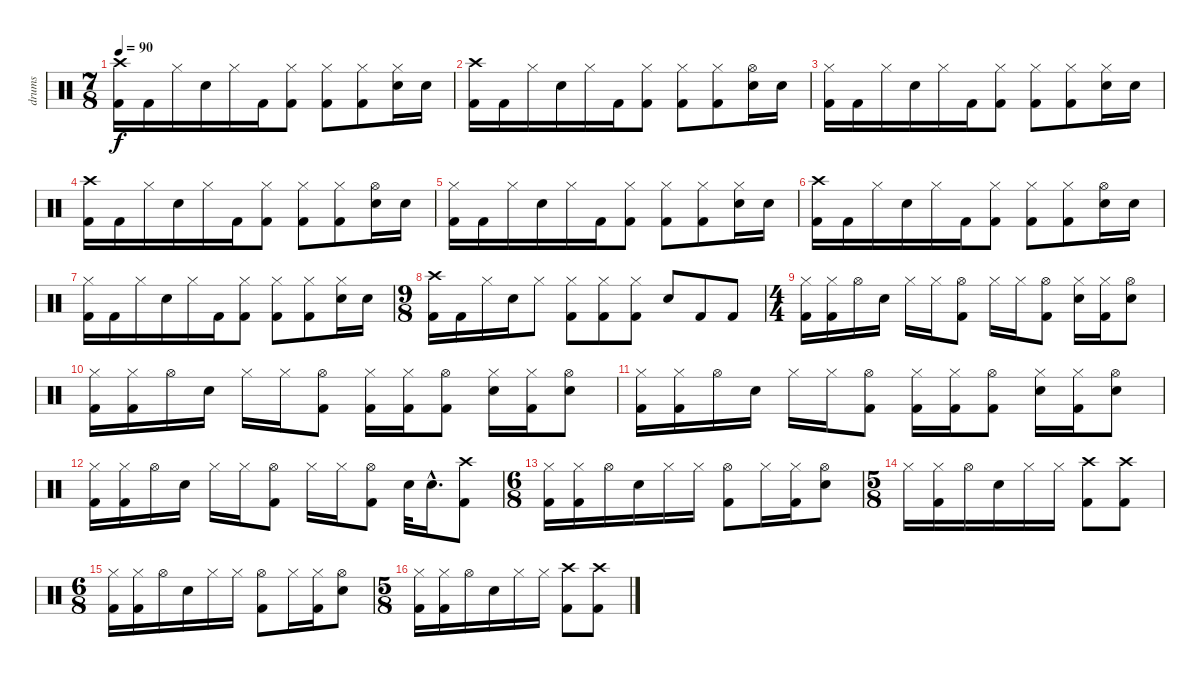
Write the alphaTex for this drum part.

\track ("drums" "drums") {instrument percussion}
\staff {score}
\articulation defaults
\ts (7 8)
\tempo 90
\clef neutral
\ks c
("Crash high (hit)" "Kick (hit) 2").16{dy f} "Kick (hit) 2".16 "Hi-Hat (closed)".16 "Electric Snare (hit)".16 "Hi-Hat (closed)".16 "Kick (hit) 2".16 ("Hi-Hat (closed)" "Kick (hit) 2").8 ("Hi-Hat (closed)" "Kick (hit) 2").8 ("Hi-Hat (closed)" "Kick (hit) 2").8 ("Hi-Hat (closed)" "Electric Snare (hit)").16 "Electric Snare (hit)".16 |
("Crash high (hit)" "Kick (hit) 2").16 "Kick (hit) 2".16 "Hi-Hat (closed)".16 "Electric Snare (hit)".16 "Hi-Hat (closed)".16 "Kick (hit) 2".16 ("Hi-Hat (closed)" "Kick (hit) 2").8 ("Hi-Hat (closed)" "Kick (hit) 2").8 ("Hi-Hat (closed)" "Kick (hit) 2").8 ("Hi-Hat (open)" "Electric Snare (hit)").16 "Electric Snare (hit)".16 |
("Hi-Hat (closed)" "Kick (hit) 2").16 "Kick (hit) 2".16 "Hi-Hat (closed)".16 "Electric Snare (hit)".16 "Hi-Hat (closed)".16 "Kick (hit) 2".16 ("Hi-Hat (closed)" "Kick (hit) 2").8 ("Hi-Hat (closed)" "Kick (hit) 2").8 ("Hi-Hat (closed)" "Kick (hit) 2").8 ("Hi-Hat (closed)" "Electric Snare (hit)").16 "Electric Snare (hit)".16 |
("Crash high (hit)" "Kick (hit) 2").16 "Kick (hit) 2".16 "Hi-Hat (closed)".16 "Electric Snare (hit)".16 "Hi-Hat (closed)".16 "Kick (hit) 2".16 ("Hi-Hat (closed)" "Kick (hit) 2").8 ("Hi-Hat (closed)" "Kick (hit) 2").8 ("Hi-Hat (closed)" "Kick (hit) 2").8 ("Hi-Hat (open)" "Electric Snare (hit)").16 "Electric Snare (hit)".16 |
("Hi-Hat (closed)" "Kick (hit) 2").16 "Kick (hit) 2".16 "Hi-Hat (closed)".16 "Electric Snare (hit)".16 "Hi-Hat (closed)".16 "Kick (hit) 2".16 ("Hi-Hat (closed)" "Kick (hit) 2").8 ("Hi-Hat (closed)" "Kick (hit) 2").8 ("Hi-Hat (closed)" "Kick (hit) 2").8 ("Hi-Hat (closed)" "Electric Snare (hit)").16 "Electric Snare (hit)".16 |
("Crash high (hit)" "Kick (hit) 2").16 "Kick (hit) 2".16 "Hi-Hat (closed)".16 "Electric Snare (hit)".16 "Hi-Hat (closed)".16 "Kick (hit) 2".16 ("Hi-Hat (closed)" "Kick (hit) 2").8 ("Hi-Hat (closed)" "Kick (hit) 2").8 ("Hi-Hat (closed)" "Kick (hit) 2").8 ("Hi-Hat (open)" "Electric Snare (hit)").16 "Electric Snare (hit)".16 |
("Hi-Hat (closed)" "Kick (hit) 2").16 "Kick (hit) 2".16 "Hi-Hat (closed)".16 "Electric Snare (hit)".16 "Hi-Hat (closed)".16 "Kick (hit) 2".16 ("Hi-Hat (closed)" "Kick (hit) 2").8 ("Hi-Hat (closed)" "Kick (hit) 2").8 ("Hi-Hat (closed)" "Kick (hit) 2").8 ("Hi-Hat (closed)" "Electric Snare (hit)").16 "Electric Snare (hit)".16 |
\ts (9 8)
("Crash high (hit)" "Kick (hit) 2").16 "Kick (hit) 2".16 "Hi-Hat (closed)".16 "Electric Snare (hit)".16 "Hi-Hat (closed)".8 ("Hi-Hat (closed)" "Kick (hit) 2").8 ("Hi-Hat (closed)" "Kick (hit) 2").8 ("Hi-Hat (closed)" "Kick (hit) 2").8 "Electric Snare (hit)".8 "Kick (hit) 2".8 "Kick (hit) 2".8 |
\ts (4 4)
("Hi-Hat (closed)" "Kick (hit) 2").16 ("Hi-Hat (closed)" "Kick (hit) 2").16 "Hi-Hat (open)".16 "Electric Snare (hit)".16 "Hi-Hat (closed)".16 "Hi-Hat (closed)".16 ("Hi-Hat (open)" "Kick (hit) 2").8 "Hi-Hat (closed)".16 "Hi-Hat (closed)".16 ("Hi-Hat (open)" "Kick (hit) 2").8 ("Hi-Hat (closed)" "Electric Snare (hit)").16 ("Hi-Hat (closed)" "Kick (hit) 2").16 ("Hi-Hat (open)" "Electric Snare (hit)").8 |
("Hi-Hat (closed)" "Kick (hit) 2").16 ("Hi-Hat (closed)" "Kick (hit) 2").16 "Hi-Hat (open)".16 "Electric Snare (hit)".16 "Hi-Hat (closed)".16 "Hi-Hat (closed)".16 ("Hi-Hat (open)" "Kick (hit) 2").8 ("Hi-Hat (closed)" "Kick (hit) 2").16 ("Hi-Hat (closed)" "Kick (hit) 2").16 ("Hi-Hat (open)" "Kick (hit) 2").8 ("Hi-Hat (closed)" "Electric Snare (hit)").16 ("Hi-Hat (closed)" "Kick (hit) 2").16 ("Hi-Hat (open)" "Electric Snare (hit)").8 |
("Hi-Hat (closed)" "Kick (hit) 2").16 ("Hi-Hat (closed)" "Kick (hit) 2").16 "Hi-Hat (open)".16 "Electric Snare (hit)".16 "Hi-Hat (closed)".16 "Hi-Hat (closed)".16 ("Hi-Hat (open)" "Kick (hit) 2").8 ("Hi-Hat (closed)" "Kick (hit) 2").16 ("Hi-Hat (closed)" "Kick (hit) 2").16 ("Hi-Hat (open)" "Kick (hit) 2").8 ("Hi-Hat (closed)" "Electric Snare (hit)").16 ("Hi-Hat (closed)" "Kick (hit) 2").16 ("Hi-Hat (open)" "Electric Snare (hit)").8 |
("Hi-Hat (closed)" "Kick (hit) 2").16 ("Hi-Hat (closed)" "Kick (hit) 2").16 "Hi-Hat (open)".16 "Electric Snare (hit)".16 "Hi-Hat (closed)".16 "Hi-Hat (closed)".16 ("Hi-Hat (open)" "Kick (hit) 2").8 "Hi-Hat (closed)".16 "Hi-Hat (closed)".16 ("Hi-Hat (open)" "Kick (hit) 2").8 "Electric Snare (hit)".32 "Electric Snare (hit)"{hac}.16{d} ("Crash high (hit)" "Kick (hit) 2").8 |
\ts (6 8)
("Hi-Hat (closed)" "Kick (hit) 2").16 ("Hi-Hat (closed)" "Kick (hit) 2").16 "Hi-Hat (open)".16 "Electric Snare (hit)".16 "Hi-Hat (closed)".16 "Hi-Hat (closed)".16 ("Hi-Hat (open)" "Kick (hit) 2").8 "Hi-Hat (closed)".16 ("Hi-Hat (closed)" "Kick (hit) 2").16 ("Hi-Hat (open)" "Electric Snare (hit)").8 |
\ts (5 8)
"Hi-Hat (closed)".16 ("Hi-Hat (closed)" "Kick (hit) 2").16 "Hi-Hat (open)".16 "Electric Snare (hit)".16 "Hi-Hat (closed)".16 "Hi-Hat (closed)".16 ("Crash high (hit)" "Kick (hit) 2").8 ("Crash high (hit)" "Kick (hit) 2").8 |
\ts (6 8)
("Hi-Hat (closed)" "Kick (hit) 2").16 ("Hi-Hat (closed)" "Kick (hit) 2").16 "Hi-Hat (open)".16 "Electric Snare (hit)".16 "Hi-Hat (closed)".16 "Hi-Hat (closed)".16 ("Hi-Hat (open)" "Kick (hit) 2").8 "Hi-Hat (closed)".16 ("Hi-Hat (closed)" "Kick (hit) 2").16 ("Hi-Hat (open)" "Electric Snare (hit)").8 |
\ts (5 8)
("Hi-Hat (closed)" "Kick (hit) 2").16 ("Hi-Hat (closed)" "Kick (hit) 2").16 "Hi-Hat (open)".16 "Electric Snare (hit)".16 "Hi-Hat (closed)".16 "Hi-Hat (closed)".16 ("Crash high (hit)" "Kick (hit) 2").8 ("Crash high (hit)" "Kick (hit) 2").8
